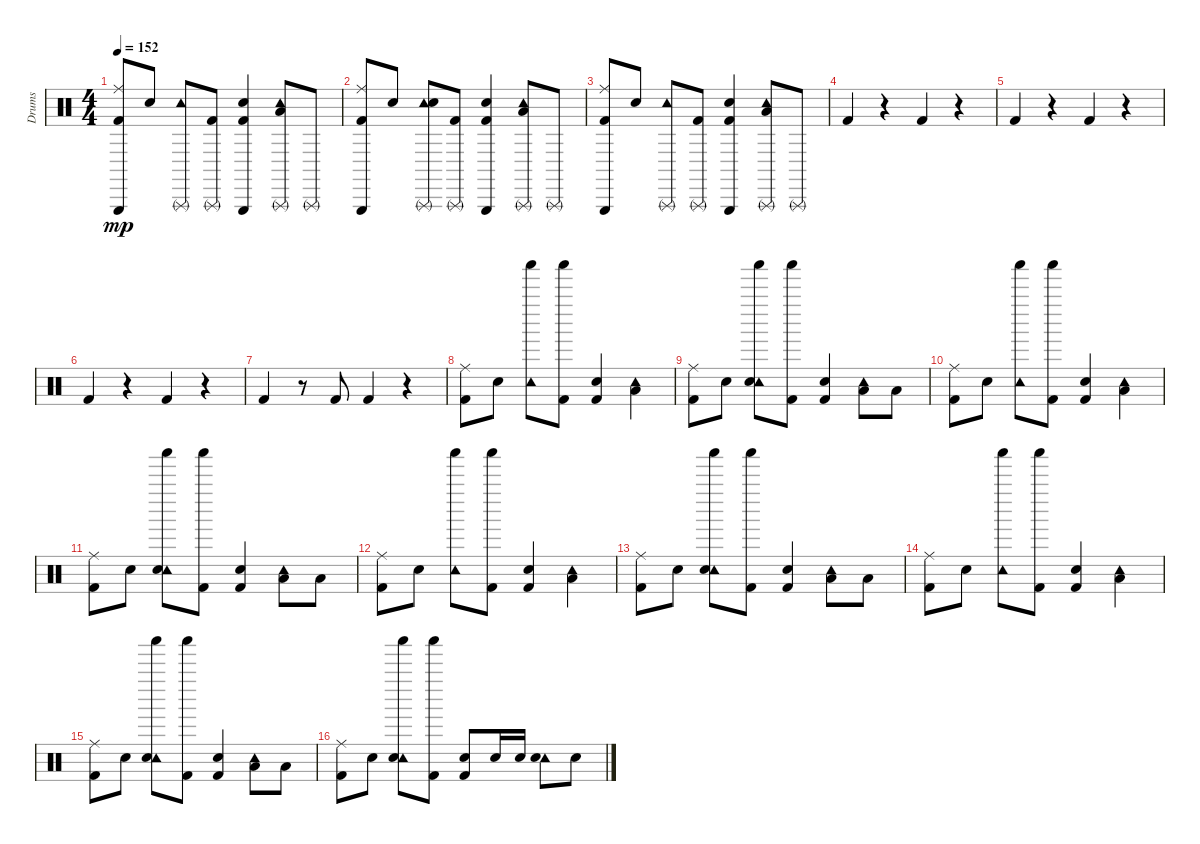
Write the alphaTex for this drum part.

\track ("Drums" "Drums") {instrument percussion}
\staff {score}
\articulation defaults
\ts (4 4)
\tempo 152
\clef neutral
\ks c
("Triangle (hit)" "Ride (middle)" "Kick (hit) 2").8{dy mp} "Snare (hit) 2".8 ("Triangle (rnute)" "Tambourine (hit)").8 ("Triangle (rnute)" "Kick (hit) 2").8 ("Triangle (hit)" "Kick (hit) 2" "Snare (hit) 2").4 ("Tambourine (hit)" "Low Tom (hit)" "Triangle (rnute)").8 "Triangle (rnute)".8 |
("Triangle (hit)" "Ride (middle)" "Kick (hit) 2").8 "Snare (hit) 2".8 ("Triangle (rnute)" "Tambourine (hit)" "Snare (hit) 2").8 ("Triangle (rnute)" "Kick (hit) 2").8 ("Triangle (hit)" "Kick (hit) 2" "Snare (hit) 2").4 ("Tambourine (hit)" "Low Tom (hit)" "Triangle (rnute)").8 "Triangle (rnute)".8 |
("Triangle (hit)" "Ride (middle)" "Kick (hit) 2").8 "Snare (hit) 2".8 ("Triangle (rnute)" "Tambourine (hit)").8 ("Triangle (rnute)" "Kick (hit) 2").8 ("Triangle (hit)" "Kick (hit) 2" "Snare (hit) 2").4 ("Tambourine (hit)" "Low Tom (hit)" "Triangle (rnute)").8 "Triangle (rnute)".8 |
"Kick (hit) 2".4 r.4 "Kick (hit) 2".4 r.4 |
"Kick (hit) 2".4 r.4 "Kick (hit) 2".4 r.4 |
"Kick (hit) 2".4 r.4 "Kick (hit) 2".4 r.4 |
"Kick (hit) 2".4 r.8 "Kick (hit) 2".8 "Kick (hit) 2".4 r.4 |
("Ride (middle)" "Kick (hit) 2").8 "Snare (hit) 2".8 ("Shaker (hit)" "Tambourine (hit)").8 ("Shaker (hit)" "Kick (hit) 2").8 ("Kick (hit) 2" "Snare (hit) 2").4 ("Tambourine (hit)" "Low Tom (hit)").4 |
("Ride (middle)" "Kick (hit) 2").8 "Snare (hit) 2".8 ("Shaker (hit)" "Tambourine (hit)" "Snare (hit) 2").8 ("Shaker (hit)" "Kick (hit) 2").8 ("Kick (hit) 2" "Snare (hit) 2").4 ("Tambourine (hit)" "Low Tom (hit)").8 "Low Tom (hit)".8 |
("Ride (middle)" "Kick (hit) 2").8 "Snare (hit) 2".8 ("Shaker (hit)" "Tambourine (hit)").8 ("Shaker (hit)" "Kick (hit) 2").8 ("Kick (hit) 2" "Snare (hit) 2").4 ("Tambourine (hit)" "Low Tom (hit)").4 |
("Ride (middle)" "Kick (hit) 2").8 "Snare (hit) 2".8 ("Shaker (hit)" "Tambourine (hit)" "Snare (hit) 2").8 ("Shaker (hit)" "Kick (hit) 2").8 ("Kick (hit) 2" "Snare (hit) 2").4 ("Tambourine (hit)" "Low Tom (hit)").8 "Low Tom (hit)".8 |
("Ride (middle)" "Kick (hit) 2").8 "Snare (hit) 2".8 ("Shaker (hit)" "Tambourine (hit)").8 ("Shaker (hit)" "Kick (hit) 2").8 ("Kick (hit) 2" "Snare (hit) 2").4 ("Tambourine (hit)" "Low Tom (hit)").4 |
("Ride (middle)" "Kick (hit) 2").8 "Snare (hit) 2".8 ("Shaker (hit)" "Tambourine (hit)" "Snare (hit) 2").8 ("Shaker (hit)" "Kick (hit) 2").8 ("Kick (hit) 2" "Snare (hit) 2").4 ("Tambourine (hit)" "Low Tom (hit)").8 "Low Tom (hit)".8 |
("Ride (middle)" "Kick (hit) 2").8 "Snare (hit) 2".8 ("Shaker (hit)" "Tambourine (hit)").8 ("Shaker (hit)" "Kick (hit) 2").8 ("Kick (hit) 2" "Snare (hit) 2").4 ("Tambourine (hit)" "Low Tom (hit)").4 |
("Ride (middle)" "Kick (hit) 2").8 "Snare (hit) 2".8 ("Shaker (hit)" "Tambourine (hit)" "Snare (hit) 2").8 ("Shaker (hit)" "Kick (hit) 2").8 ("Kick (hit) 2" "Snare (hit) 2").4 ("Tambourine (hit)" "Low Tom (hit)").8 "Low Tom (hit)".8 |
("Ride (middle)" "Kick (hit) 2").8 "Snare (hit) 2".8 ("Shaker (hit)" "Tambourine (hit)" "Snare (hit) 2").8 ("Shaker (hit)" "Kick (hit) 2").8 ("Kick (hit) 2" "Snare (hit) 2").8 "Snare (hit) 2".16 "Snare (hit) 2".16 ("Tambourine (hit)" "Snare (hit) 2").8 "Snare (hit) 2".8
